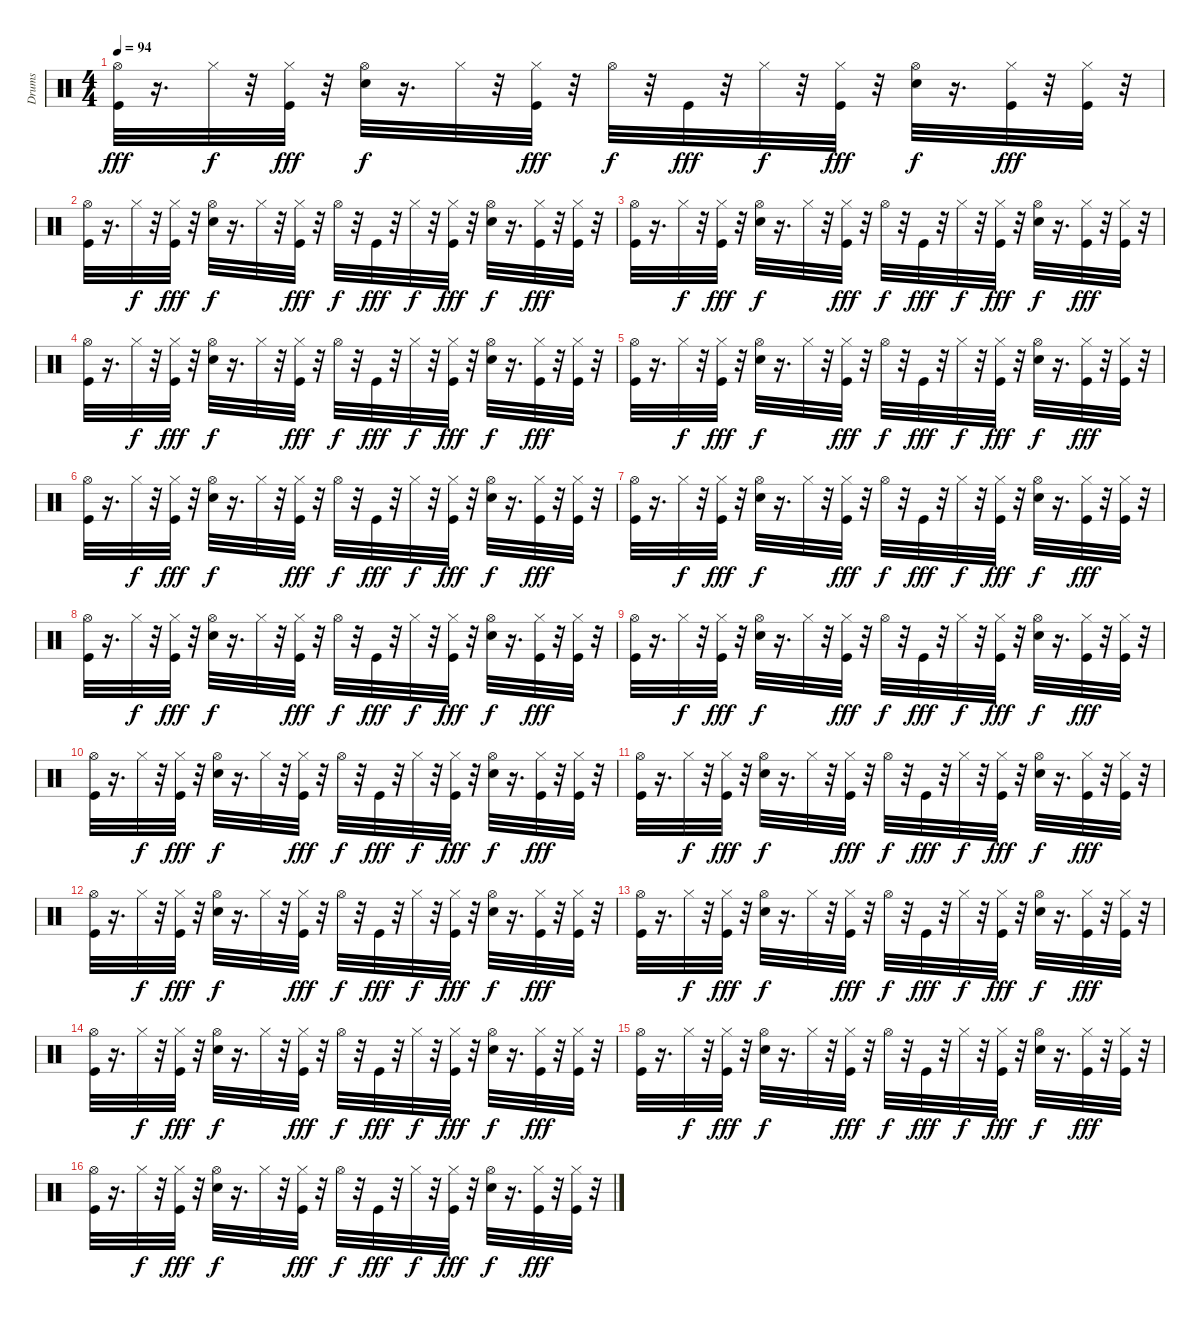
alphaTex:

\track ("Drums" "Drums") {instrument percussion}
\staff {score}
\articulation defaults
\ts (4 4)
\tempo 94
\clef neutral
\ks c
("Kick (hit)" "Hi-Hat (open)").32{dy fff} r.16{d} "Hi-Hat (closed)".32{dy f} r.32 ("Kick (hit)" "Hi-Hat (closed)").32{dy fff} r.32 ("Snare (hit) 2" "Hi-Hat (open)").32{dy f} r.16{d} "Hi-Hat (closed)".32 r.32 ("Kick (hit)" "Hi-Hat (closed)").32{dy fff} r.32 "Hi-Hat (open)".32{dy f} r.32 "Kick (hit)".32{dy fff} r.32 "Hi-Hat (closed)".32{dy f} r.32 ("Kick (hit)" "Hi-Hat (closed)").32{dy fff} r.32 ("Snare (hit) 2" "Hi-Hat (open)").32{dy f} r.16{d} ("Kick (hit)" "Hi-Hat (closed)").32{dy fff} r.32 ("Kick (hit)" "Hi-Hat (closed)").32 r.32 |
("Kick (hit)" "Hi-Hat (open)").32 r.16{d} "Hi-Hat (closed)".32{dy f} r.32 ("Kick (hit)" "Hi-Hat (closed)").32{dy fff} r.32 ("Snare (hit) 2" "Hi-Hat (open)").32{dy f} r.16{d} "Hi-Hat (closed)".32 r.32 ("Kick (hit)" "Hi-Hat (closed)").32{dy fff} r.32 "Hi-Hat (open)".32{dy f} r.32 "Kick (hit)".32{dy fff} r.32 "Hi-Hat (closed)".32{dy f} r.32 ("Kick (hit)" "Hi-Hat (closed)").32{dy fff} r.32 ("Snare (hit) 2" "Hi-Hat (open)").32{dy f} r.16{d} ("Kick (hit)" "Hi-Hat (closed)").32{dy fff} r.32 ("Kick (hit)" "Hi-Hat (closed)").32 r.32 |
("Kick (hit)" "Hi-Hat (open)").32 r.16{d} "Hi-Hat (closed)".32{dy f} r.32 ("Kick (hit)" "Hi-Hat (closed)").32{dy fff} r.32 ("Snare (hit) 2" "Hi-Hat (open)").32{dy f} r.16{d} "Hi-Hat (closed)".32 r.32 ("Kick (hit)" "Hi-Hat (closed)").32{dy fff} r.32 "Hi-Hat (open)".32{dy f} r.32 "Kick (hit)".32{dy fff} r.32 "Hi-Hat (closed)".32{dy f} r.32 ("Kick (hit)" "Hi-Hat (closed)").32{dy fff} r.32 ("Snare (hit) 2" "Hi-Hat (open)").32{dy f} r.16{d} ("Kick (hit)" "Hi-Hat (closed)").32{dy fff} r.32 ("Kick (hit)" "Hi-Hat (closed)").32 r.32 |
("Kick (hit)" "Hi-Hat (open)").32 r.16{d} "Hi-Hat (closed)".32{dy f} r.32 ("Kick (hit)" "Hi-Hat (closed)").32{dy fff} r.32 ("Snare (hit) 2" "Hi-Hat (open)").32{dy f} r.16{d} "Hi-Hat (closed)".32 r.32 ("Kick (hit)" "Hi-Hat (closed)").32{dy fff} r.32 "Hi-Hat (open)".32{dy f} r.32 "Kick (hit)".32{dy fff} r.32 "Hi-Hat (closed)".32{dy f} r.32 ("Kick (hit)" "Hi-Hat (closed)").32{dy fff} r.32 ("Snare (hit) 2" "Hi-Hat (open)").32{dy f} r.16{d} ("Kick (hit)" "Hi-Hat (closed)").32{dy fff} r.32 ("Kick (hit)" "Hi-Hat (closed)").32 r.32 |
("Kick (hit)" "Hi-Hat (open)").32 r.16{d} "Hi-Hat (closed)".32{dy f} r.32 ("Kick (hit)" "Hi-Hat (closed)").32{dy fff} r.32 ("Snare (hit) 2" "Hi-Hat (open)").32{dy f} r.16{d} "Hi-Hat (closed)".32 r.32 ("Kick (hit)" "Hi-Hat (closed)").32{dy fff} r.32 "Hi-Hat (open)".32{dy f} r.32 "Kick (hit)".32{dy fff} r.32 "Hi-Hat (closed)".32{dy f} r.32 ("Kick (hit)" "Hi-Hat (closed)").32{dy fff} r.32 ("Snare (hit) 2" "Hi-Hat (open)").32{dy f} r.16{d} ("Kick (hit)" "Hi-Hat (closed)").32{dy fff} r.32 ("Kick (hit)" "Hi-Hat (closed)").32 r.32 |
("Kick (hit)" "Hi-Hat (open)").32 r.16{d} "Hi-Hat (closed)".32{dy f} r.32 ("Kick (hit)" "Hi-Hat (closed)").32{dy fff} r.32 ("Snare (hit) 2" "Hi-Hat (open)").32{dy f} r.16{d} "Hi-Hat (closed)".32 r.32 ("Kick (hit)" "Hi-Hat (closed)").32{dy fff} r.32 "Hi-Hat (open)".32{dy f} r.32 "Kick (hit)".32{dy fff} r.32 "Hi-Hat (closed)".32{dy f} r.32 ("Kick (hit)" "Hi-Hat (closed)").32{dy fff} r.32 ("Snare (hit) 2" "Hi-Hat (open)").32{dy f} r.16{d} ("Kick (hit)" "Hi-Hat (closed)").32{dy fff} r.32 ("Kick (hit)" "Hi-Hat (closed)").32 r.32 |
("Kick (hit)" "Hi-Hat (open)").32 r.16{d} "Hi-Hat (closed)".32{dy f} r.32 ("Kick (hit)" "Hi-Hat (closed)").32{dy fff} r.32 ("Snare (hit) 2" "Hi-Hat (open)").32{dy f} r.16{d} "Hi-Hat (closed)".32 r.32 ("Kick (hit)" "Hi-Hat (closed)").32{dy fff} r.32 "Hi-Hat (open)".32{dy f} r.32 "Kick (hit)".32{dy fff} r.32 "Hi-Hat (closed)".32{dy f} r.32 ("Kick (hit)" "Hi-Hat (closed)").32{dy fff} r.32 ("Snare (hit) 2" "Hi-Hat (open)").32{dy f} r.16{d} ("Kick (hit)" "Hi-Hat (closed)").32{dy fff} r.32 ("Kick (hit)" "Hi-Hat (closed)").32 r.32 |
("Kick (hit)" "Hi-Hat (open)").32 r.16{d} "Hi-Hat (closed)".32{dy f} r.32 ("Kick (hit)" "Hi-Hat (closed)").32{dy fff} r.32 ("Snare (hit) 2" "Hi-Hat (open)").32{dy f} r.16{d} "Hi-Hat (closed)".32 r.32 ("Kick (hit)" "Hi-Hat (closed)").32{dy fff} r.32 "Hi-Hat (open)".32{dy f} r.32 "Kick (hit)".32{dy fff} r.32 "Hi-Hat (closed)".32{dy f} r.32 ("Kick (hit)" "Hi-Hat (closed)").32{dy fff} r.32 ("Snare (hit) 2" "Hi-Hat (open)").32{dy f} r.16{d} ("Kick (hit)" "Hi-Hat (closed)").32{dy fff} r.32 ("Kick (hit)" "Hi-Hat (closed)").32 r.32 |
("Kick (hit)" "Hi-Hat (open)").32 r.16{d} "Hi-Hat (closed)".32{dy f} r.32 ("Kick (hit)" "Hi-Hat (closed)").32{dy fff} r.32 ("Snare (hit) 2" "Hi-Hat (open)").32{dy f} r.16{d} "Hi-Hat (closed)".32 r.32 ("Kick (hit)" "Hi-Hat (closed)").32{dy fff} r.32 "Hi-Hat (open)".32{dy f} r.32 "Kick (hit)".32{dy fff} r.32 "Hi-Hat (closed)".32{dy f} r.32 ("Kick (hit)" "Hi-Hat (closed)").32{dy fff} r.32 ("Snare (hit) 2" "Hi-Hat (open)").32{dy f} r.16{d} ("Kick (hit)" "Hi-Hat (closed)").32{dy fff} r.32 ("Kick (hit)" "Hi-Hat (closed)").32 r.32 |
("Kick (hit)" "Hi-Hat (open)").32 r.16{d} "Hi-Hat (closed)".32{dy f} r.32 ("Kick (hit)" "Hi-Hat (closed)").32{dy fff} r.32 ("Snare (hit) 2" "Hi-Hat (open)").32{dy f} r.16{d} "Hi-Hat (closed)".32 r.32 ("Kick (hit)" "Hi-Hat (closed)").32{dy fff} r.32 "Hi-Hat (open)".32{dy f} r.32 "Kick (hit)".32{dy fff} r.32 "Hi-Hat (closed)".32{dy f} r.32 ("Kick (hit)" "Hi-Hat (closed)").32{dy fff} r.32 ("Snare (hit) 2" "Hi-Hat (open)").32{dy f} r.16{d} ("Kick (hit)" "Hi-Hat (closed)").32{dy fff} r.32 ("Kick (hit)" "Hi-Hat (closed)").32 r.32 |
("Kick (hit)" "Hi-Hat (open)").32 r.16{d} "Hi-Hat (closed)".32{dy f} r.32 ("Kick (hit)" "Hi-Hat (closed)").32{dy fff} r.32 ("Snare (hit) 2" "Hi-Hat (open)").32{dy f} r.16{d} "Hi-Hat (closed)".32 r.32 ("Kick (hit)" "Hi-Hat (closed)").32{dy fff} r.32 "Hi-Hat (open)".32{dy f} r.32 "Kick (hit)".32{dy fff} r.32 "Hi-Hat (closed)".32{dy f} r.32 ("Kick (hit)" "Hi-Hat (closed)").32{dy fff} r.32 ("Snare (hit) 2" "Hi-Hat (open)").32{dy f} r.16{d} ("Kick (hit)" "Hi-Hat (closed)").32{dy fff} r.32 ("Kick (hit)" "Hi-Hat (closed)").32 r.32 |
("Kick (hit)" "Hi-Hat (open)").32 r.16{d} "Hi-Hat (closed)".32{dy f} r.32 ("Kick (hit)" "Hi-Hat (closed)").32{dy fff} r.32 ("Snare (hit) 2" "Hi-Hat (open)").32{dy f} r.16{d} "Hi-Hat (closed)".32 r.32 ("Kick (hit)" "Hi-Hat (closed)").32{dy fff} r.32 "Hi-Hat (open)".32{dy f} r.32 "Kick (hit)".32{dy fff} r.32 "Hi-Hat (closed)".32{dy f} r.32 ("Kick (hit)" "Hi-Hat (closed)").32{dy fff} r.32 ("Snare (hit) 2" "Hi-Hat (open)").32{dy f} r.16{d} ("Kick (hit)" "Hi-Hat (closed)").32{dy fff} r.32 ("Kick (hit)" "Hi-Hat (closed)").32 r.32 |
("Kick (hit)" "Hi-Hat (open)").32 r.16{d} "Hi-Hat (closed)".32{dy f} r.32 ("Kick (hit)" "Hi-Hat (closed)").32{dy fff} r.32 ("Snare (hit) 2" "Hi-Hat (open)").32{dy f} r.16{d} "Hi-Hat (closed)".32 r.32 ("Kick (hit)" "Hi-Hat (closed)").32{dy fff} r.32 "Hi-Hat (open)".32{dy f} r.32 "Kick (hit)".32{dy fff} r.32 "Hi-Hat (closed)".32{dy f} r.32 ("Kick (hit)" "Hi-Hat (closed)").32{dy fff} r.32 ("Snare (hit) 2" "Hi-Hat (open)").32{dy f} r.16{d} ("Kick (hit)" "Hi-Hat (closed)").32{dy fff} r.32 ("Kick (hit)" "Hi-Hat (closed)").32 r.32 |
("Kick (hit)" "Hi-Hat (open)").32 r.16{d} "Hi-Hat (closed)".32{dy f} r.32 ("Kick (hit)" "Hi-Hat (closed)").32{dy fff} r.32 ("Snare (hit) 2" "Hi-Hat (open)").32{dy f} r.16{d} "Hi-Hat (closed)".32 r.32 ("Kick (hit)" "Hi-Hat (closed)").32{dy fff} r.32 "Hi-Hat (open)".32{dy f} r.32 "Kick (hit)".32{dy fff} r.32 "Hi-Hat (closed)".32{dy f} r.32 ("Kick (hit)" "Hi-Hat (closed)").32{dy fff} r.32 ("Snare (hit) 2" "Hi-Hat (open)").32{dy f} r.16{d} ("Kick (hit)" "Hi-Hat (closed)").32{dy fff} r.32 ("Kick (hit)" "Hi-Hat (closed)").32 r.32 |
("Kick (hit)" "Hi-Hat (open)").32 r.16{d} "Hi-Hat (closed)".32{dy f} r.32 ("Kick (hit)" "Hi-Hat (closed)").32{dy fff} r.32 ("Snare (hit) 2" "Hi-Hat (open)").32{dy f} r.16{d} "Hi-Hat (closed)".32 r.32 ("Kick (hit)" "Hi-Hat (closed)").32{dy fff} r.32 "Hi-Hat (open)".32{dy f} r.32 "Kick (hit)".32{dy fff} r.32 "Hi-Hat (closed)".32{dy f} r.32 ("Kick (hit)" "Hi-Hat (closed)").32{dy fff} r.32 ("Snare (hit) 2" "Hi-Hat (open)").32{dy f} r.16{d} ("Kick (hit)" "Hi-Hat (closed)").32{dy fff} r.32 ("Kick (hit)" "Hi-Hat (closed)").32 r.32 |
("Kick (hit)" "Hi-Hat (open)").32 r.16{d} "Hi-Hat (closed)".32{dy f} r.32 ("Kick (hit)" "Hi-Hat (closed)").32{dy fff} r.32 ("Snare (hit) 2" "Hi-Hat (open)").32{dy f} r.16{d} "Hi-Hat (closed)".32 r.32 ("Kick (hit)" "Hi-Hat (closed)").32{dy fff} r.32 "Hi-Hat (open)".32{dy f} r.32 "Kick (hit)".32{dy fff} r.32 "Hi-Hat (closed)".32{dy f} r.32 ("Kick (hit)" "Hi-Hat (closed)").32{dy fff} r.32 ("Snare (hit) 2" "Hi-Hat (open)").32{dy f} r.16{d} ("Kick (hit)" "Hi-Hat (closed)").32{dy fff} r.32 ("Kick (hit)" "Hi-Hat (closed)").32 r.32
